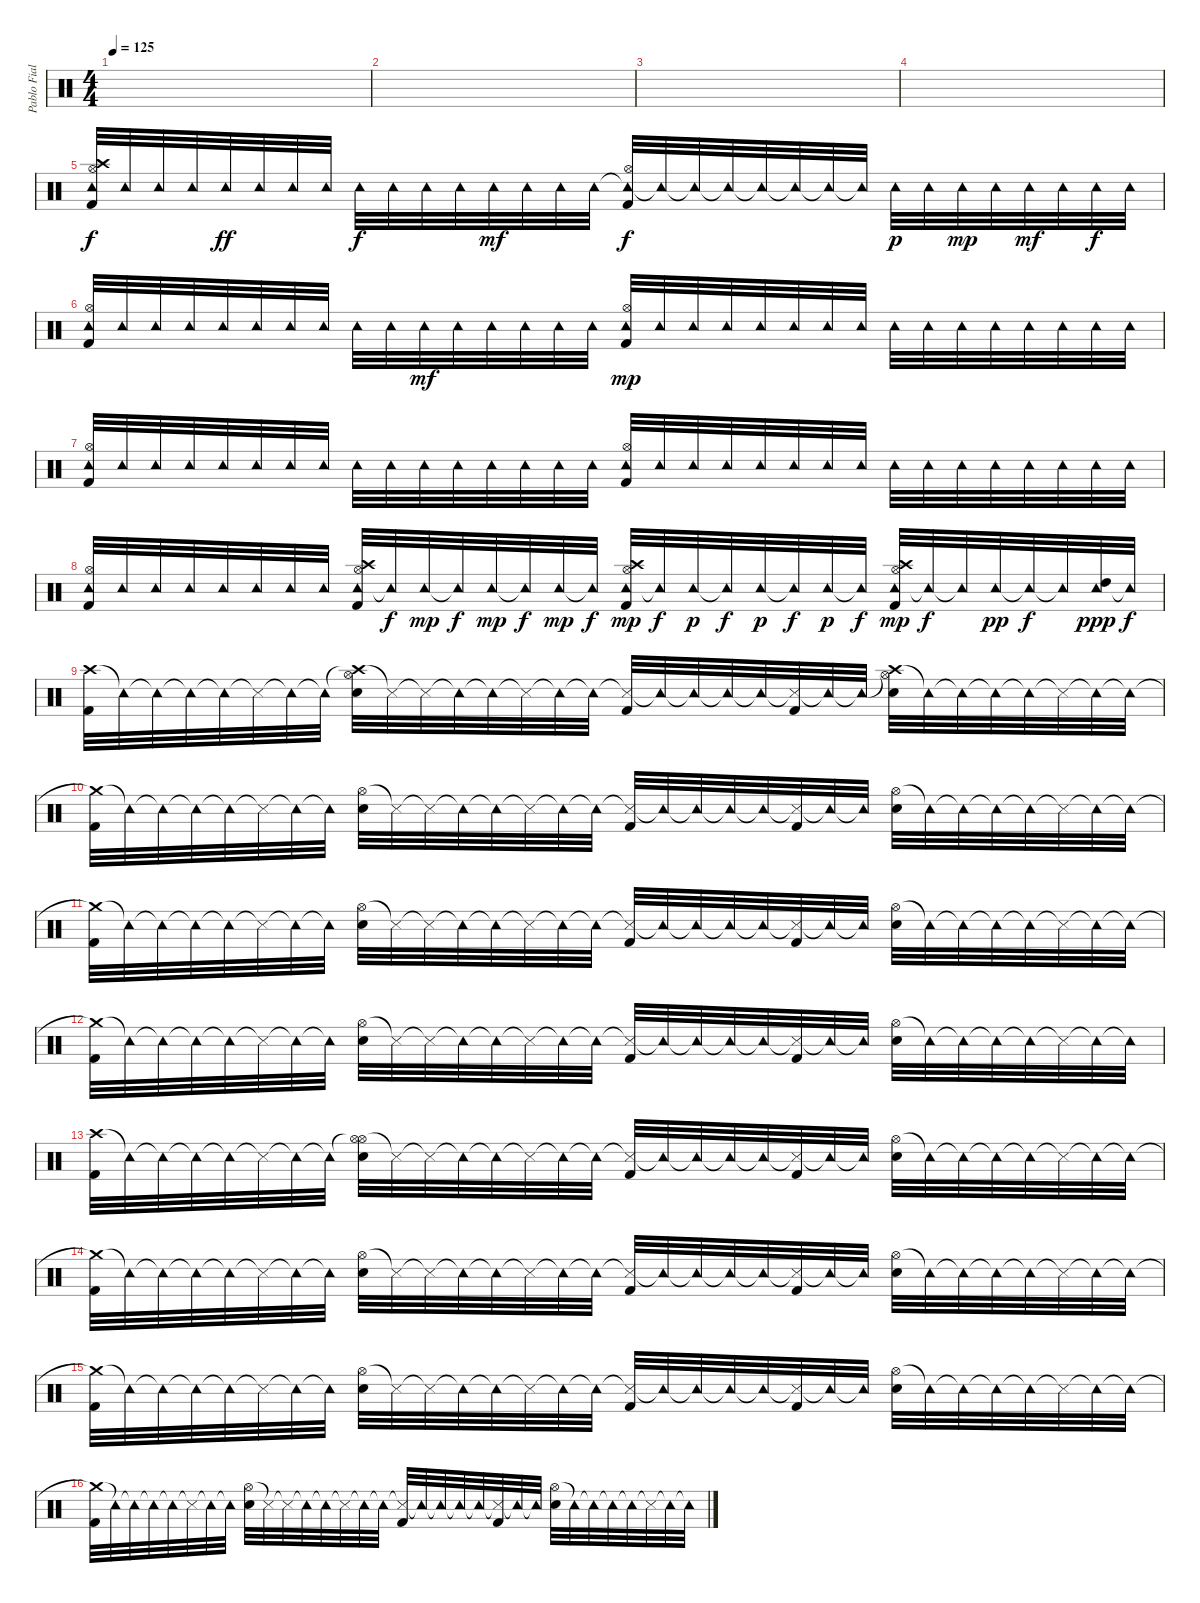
\track ("Pablo Fiallo" "Pablo Fial") {instrument percussion}
\staff {score}
\articulation defaults
\ts (4 4)
\tempo 125
\clef neutral
\ks c
|
|
|
|
("Tambourine (hit)" "Hi-Hat (open)" "Crash high (hit)" "Kick (hit) 2").32 "Tambourine (hit)".32 "Tambourine (hit)".32 "Tambourine (hit)".32 "Tambourine (hit)".32{dy ff} "Tambourine (hit)".32 "Tambourine (hit)".32 "Tambourine (hit)".32 "Tambourine (hit)".32{dy f} "Tambourine (hit)".32 "Tambourine (hit)".32 "Tambourine (hit)".32 "Tambourine (hit)".32{dy mf} "Tambourine (hit)".32 "Tambourine (hit)".32 "Tambourine (hit)".32 ("Tambourine (hit)"{t} "Hi-Hat (open)" "Kick (hit) 2").32{dy f} "Tambourine (hit)"{t}.32 "Tambourine (hit)"{t}.32 "Tambourine (hit)"{t}.32 "Tambourine (hit)"{t}.32 "Tambourine (hit)"{t}.32 "Tambourine (hit)"{t}.32 "Tambourine (hit)"{t}.32 "Tambourine (hit)".32{dy p} "Tambourine (hit)".32 "Tambourine (hit)".32{dy mp} "Tambourine (hit)".32 "Tambourine (hit)".32{dy mf} "Tambourine (hit)".32 "Tambourine (hit)".32{dy f} "Tambourine (hit)".32 |
("Tambourine (hit)" "Hi-Hat (open)" "Kick (hit) 2").32 "Tambourine (hit)".32 "Tambourine (hit)".32 "Tambourine (hit)".32 "Tambourine (hit)".32 "Tambourine (hit)".32 "Tambourine (hit)".32 "Tambourine (hit)".32 "Tambourine (hit)".32 "Tambourine (hit)".32 "Tambourine (hit)".32{dy mf} "Tambourine (hit)".32 "Tambourine (hit)".32 "Tambourine (hit)".32 "Tambourine (hit)".32 "Tambourine (hit)".32 ("Tambourine (hit)" "Hi-Hat (open)" "Kick (hit) 2").32{dy mp} "Tambourine (hit)".32 "Tambourine (hit)".32 "Tambourine (hit)".32 "Tambourine (hit)".32 "Tambourine (hit)".32 "Tambourine (hit)".32 "Tambourine (hit)".32 "Tambourine (hit)".32 "Tambourine (hit)".32 "Tambourine (hit)".32 "Tambourine (hit)".32 "Tambourine (hit)".32 "Tambourine (hit)".32 "Tambourine (hit)".32 "Tambourine (hit)".32 |
("Tambourine (hit)" "Hi-Hat (open)" "Kick (hit) 2").32 "Tambourine (hit)".32 "Tambourine (hit)".32 "Tambourine (hit)".32 "Tambourine (hit)".32 "Tambourine (hit)".32 "Tambourine (hit)".32 "Tambourine (hit)".32 "Tambourine (hit)".32 "Tambourine (hit)".32 "Tambourine (hit)".32 "Tambourine (hit)".32 "Tambourine (hit)".32 "Tambourine (hit)".32 "Tambourine (hit)".32 "Tambourine (hit)".32 ("Tambourine (hit)" "Hi-Hat (open)" "Kick (hit) 2").32 "Tambourine (hit)".32 "Tambourine (hit)".32 "Tambourine (hit)".32 "Tambourine (hit)".32 "Tambourine (hit)".32 "Tambourine (hit)".32 "Tambourine (hit)".32 "Tambourine (hit)".32 "Tambourine (hit)".32 "Tambourine (hit)".32 "Tambourine (hit)".32 "Tambourine (hit)".32 "Tambourine (hit)".32 "Tambourine (hit)".32 "Tambourine (hit)".32 |
("Tambourine (hit)" "Hi-Hat (open)" "Kick (hit) 2").32 "Tambourine (hit)".32 "Tambourine (hit)".32 "Tambourine (hit)".32 "Tambourine (hit)".32 "Tambourine (hit)".32 "Tambourine (hit)".32 "Tambourine (hit)".32 ("Tambourine (hit)" "Hi-Hat (open)" "Crash high (hit)" "Kick (hit) 2").32 "Tambourine (hit)"{t}.32{dy f} "Tambourine (hit)".32{dy mp} "Tambourine (hit)"{t}.32{dy f} "Tambourine (hit)".32{dy mp} "Tambourine (hit)"{t}.32{dy f} "Tambourine (hit)".32{dy mp} "Tambourine (hit)"{t}.32{dy f} ("Tambourine (hit)" "Hi-Hat (open)" "Crash high (hit)" "Kick (hit) 2").32{dy mp} "Tambourine (hit)"{t}.32{dy f} "Tambourine (hit)".32{dy p} "Tambourine (hit)"{t}.32{dy f} "Tambourine (hit)".32{dy p} "Tambourine (hit)"{t}.32{dy f} "Tambourine (hit)".32{dy p} "Tambourine (hit)"{t}.32{dy f} ("Tambourine (hit)" "Hi-Hat (open)" "Crash high (hit)" "Kick (hit) 2").32{dy mp} "Tambourine (hit)"{t}.32{dy f} "Tambourine (hit)"{t}.32 "Tambourine (hit)".32{dy pp} "Tambourine (hit)"{t}.32{dy f} "Tambourine (hit)"{t}.32 ("Tambourine (hit)" "High Tom (hit)").32{dy ppp} "Tambourine (hit)"{t}.32{dy f} |
("Crash high (hit)" "Kick (hit) 2").32 "Tambourine (hit)"{t}.32 "Tambourine (hit)"{t}.32 "Tambourine (hit)"{t}.32 "Tambourine (hit)"{t}.32 "Snare (side stick) 3"{t}.32 "Tambourine (hit)"{t}.32 "Tambourine (hit)"{t}.32 ("Crash high (hit)"{t} "Hi-Hat (open)" "Snare (hit) 2").32 "Snare (side stick) 3"{t}.32 "Snare (side stick) 3"{t}.32 "Tambourine (hit)"{t}.32 "Tambourine (hit)"{t}.32 "Snare (side stick) 3"{t}.32 "Tambourine (hit)"{t}.32 "Tambourine (hit)"{t}.32 ("Snare (side stick) 3"{t} "Kick (hit) 2").32 "Tambourine (hit)"{t}.32 "Tambourine (hit)"{t}.32 "Tambourine (hit)"{t}.32 "Tambourine (hit)"{t}.32 ("Snare (side stick) 3"{t} "Kick (hit) 2").32 "Tambourine (hit)"{t}.32 "Tambourine (hit)"{t}.32 ("Crash high (hit)"{t} "Hi-Hat (open)" "Snare (hit) 2").32 "Tambourine (hit)"{t}.32 "Tambourine (hit)"{t}.32 "Tambourine (hit)"{t}.32 "Tambourine (hit)"{t}.32 "Snare (side stick) 3"{t}.32 "Tambourine (hit)"{t}.32 "Tambourine (hit)"{t}.32 |
("Crash medium (hit)"{t} "Kick (hit) 2").32 "Tambourine (hit)"{t}.32 "Tambourine (hit)"{t}.32 "Tambourine (hit)"{t}.32 "Tambourine (hit)"{t}.32 "Snare (side stick) 3"{t}.32 "Tambourine (hit)"{t}.32 "Tambourine (hit)"{t}.32 ("Hi-Hat (open)" "Snare (hit) 2").32 "Snare (side stick) 3"{t}.32 "Snare (side stick) 3"{t}.32 "Tambourine (hit)"{t}.32 "Tambourine (hit)"{t}.32 "Snare (side stick) 3"{t}.32 "Tambourine (hit)"{t}.32 "Tambourine (hit)"{t}.32 ("Snare (side stick) 3"{t} "Kick (hit) 2").32 "Tambourine (hit)"{t}.32 "Tambourine (hit)"{t}.32 "Tambourine (hit)"{t}.32 "Tambourine (hit)"{t}.32 ("Snare (side stick) 3"{t} "Kick (hit) 2").32 "Tambourine (hit)"{t}.32 "Tambourine (hit)"{t}.32 ("Hi-Hat (open)" "Snare (hit) 2").32 "Tambourine (hit)"{t}.32 "Tambourine (hit)"{t}.32 "Tambourine (hit)"{t}.32 "Tambourine (hit)"{t}.32 "Snare (side stick) 3"{t}.32 "Tambourine (hit)"{t}.32 "Tambourine (hit)"{t}.32 |
("Crash medium (hit)"{t} "Kick (hit) 2").32 "Tambourine (hit)"{t}.32 "Tambourine (hit)"{t}.32 "Tambourine (hit)"{t}.32 "Tambourine (hit)"{t}.32 "Snare (side stick) 3"{t}.32 "Tambourine (hit)"{t}.32 "Tambourine (hit)"{t}.32 ("Hi-Hat (open)" "Snare (hit) 2").32 "Snare (side stick) 3"{t}.32 "Snare (side stick) 3"{t}.32 "Tambourine (hit)"{t}.32 "Tambourine (hit)"{t}.32 "Snare (side stick) 3"{t}.32 "Tambourine (hit)"{t}.32 "Tambourine (hit)"{t}.32 ("Snare (side stick) 3"{t} "Kick (hit) 2").32 "Tambourine (hit)"{t}.32 "Tambourine (hit)"{t}.32 "Tambourine (hit)"{t}.32 "Tambourine (hit)"{t}.32 ("Snare (side stick) 3"{t} "Kick (hit) 2").32 "Tambourine (hit)"{t}.32 "Tambourine (hit)"{t}.32 ("Hi-Hat (open)" "Snare (hit) 2").32 "Tambourine (hit)"{t}.32 "Tambourine (hit)"{t}.32 "Tambourine (hit)"{t}.32 "Tambourine (hit)"{t}.32 "Snare (side stick) 3"{t}.32 "Tambourine (hit)"{t}.32 "Tambourine (hit)"{t}.32 |
("Crash medium (hit)"{t} "Kick (hit) 2").32 "Tambourine (hit)"{t}.32 "Tambourine (hit)"{t}.32 "Tambourine (hit)"{t}.32 "Tambourine (hit)"{t}.32 "Snare (side stick) 3"{t}.32 "Tambourine (hit)"{t}.32 "Tambourine (hit)"{t}.32 ("Hi-Hat (open)" "Snare (hit) 2").32 "Snare (side stick) 3"{t}.32 "Snare (side stick) 3"{t}.32 "Tambourine (hit)"{t}.32 "Tambourine (hit)"{t}.32 "Snare (side stick) 3"{t}.32 "Tambourine (hit)"{t}.32 "Tambourine (hit)"{t}.32 ("Snare (side stick) 3"{t} "Kick (hit) 2").32 "Tambourine (hit)"{t}.32 "Tambourine (hit)"{t}.32 "Tambourine (hit)"{t}.32 "Tambourine (hit)"{t}.32 ("Snare (side stick) 3"{t} "Kick (hit) 2").32 "Tambourine (hit)"{t}.32 "Tambourine (hit)"{t}.32 ("Hi-Hat (open)" "Snare (hit) 2").32 "Tambourine (hit)"{t}.32 "Tambourine (hit)"{t}.32 "Tambourine (hit)"{t}.32 "Tambourine (hit)"{t}.32 "Snare (side stick) 3"{t}.32 "Tambourine (hit)"{t}.32 "Tambourine (hit)"{t}.32 |
("Crash high (hit)" "Kick (hit) 2").32 "Tambourine (hit)"{t}.32 "Tambourine (hit)"{t}.32 "Tambourine (hit)"{t}.32 "Tambourine (hit)"{t}.32 "Snare (side stick) 3"{t}.32 "Tambourine (hit)"{t}.32 "Tambourine (hit)"{t}.32 ("Hi-Hat (open)"{t} "Hi-Hat (open)" "Snare (hit) 2").32 "Snare (side stick) 3"{t}.32 "Snare (side stick) 3"{t}.32 "Tambourine (hit)"{t}.32 "Tambourine (hit)"{t}.32 "Snare (side stick) 3"{t}.32 "Tambourine (hit)"{t}.32 "Tambourine (hit)"{t}.32 ("Snare (side stick) 3"{t} "Kick (hit) 2").32 "Tambourine (hit)"{t}.32 "Tambourine (hit)"{t}.32 "Tambourine (hit)"{t}.32 "Tambourine (hit)"{t}.32 ("Snare (side stick) 3"{t} "Kick (hit) 2").32 "Tambourine (hit)"{t}.32 "Tambourine (hit)"{t}.32 ("Hi-Hat (open)" "Snare (hit) 2").32 "Tambourine (hit)"{t}.32 "Tambourine (hit)"{t}.32 "Tambourine (hit)"{t}.32 "Tambourine (hit)"{t}.32 "Snare (side stick) 3"{t}.32 "Tambourine (hit)"{t}.32 "Tambourine (hit)"{t}.32 |
("Crash medium (hit)"{t} "Kick (hit) 2").32 "Tambourine (hit)"{t}.32 "Tambourine (hit)"{t}.32 "Tambourine (hit)"{t}.32 "Tambourine (hit)"{t}.32 "Snare (side stick) 3"{t}.32 "Tambourine (hit)"{t}.32 "Tambourine (hit)"{t}.32 ("Hi-Hat (open)" "Snare (hit) 2").32 "Snare (side stick) 3"{t}.32 "Snare (side stick) 3"{t}.32 "Tambourine (hit)"{t}.32 "Tambourine (hit)"{t}.32 "Snare (side stick) 3"{t}.32 "Tambourine (hit)"{t}.32 "Tambourine (hit)"{t}.32 ("Snare (side stick) 3"{t} "Kick (hit) 2").32 "Tambourine (hit)"{t}.32 "Tambourine (hit)"{t}.32 "Tambourine (hit)"{t}.32 "Tambourine (hit)"{t}.32 ("Snare (side stick) 3"{t} "Kick (hit) 2").32 "Tambourine (hit)"{t}.32 "Tambourine (hit)"{t}.32 ("Hi-Hat (open)" "Snare (hit) 2").32 "Tambourine (hit)"{t}.32 "Tambourine (hit)"{t}.32 "Tambourine (hit)"{t}.32 "Tambourine (hit)"{t}.32 "Snare (side stick) 3"{t}.32 "Tambourine (hit)"{t}.32 "Tambourine (hit)"{t}.32 |
("Crash medium (hit)"{t} "Kick (hit) 2").32 "Tambourine (hit)"{t}.32 "Tambourine (hit)"{t}.32 "Tambourine (hit)"{t}.32 "Tambourine (hit)"{t}.32 "Snare (side stick) 3"{t}.32 "Tambourine (hit)"{t}.32 "Tambourine (hit)"{t}.32 ("Hi-Hat (open)" "Snare (hit) 2").32 "Snare (side stick) 3"{t}.32 "Snare (side stick) 3"{t}.32 "Tambourine (hit)"{t}.32 "Tambourine (hit)"{t}.32 "Snare (side stick) 3"{t}.32 "Tambourine (hit)"{t}.32 "Tambourine (hit)"{t}.32 ("Snare (side stick) 3"{t} "Kick (hit) 2").32 "Tambourine (hit)"{t}.32 "Tambourine (hit)"{t}.32 "Tambourine (hit)"{t}.32 "Tambourine (hit)"{t}.32 ("Snare (side stick) 3"{t} "Kick (hit) 2").32 "Tambourine (hit)"{t}.32 "Tambourine (hit)"{t}.32 ("Hi-Hat (open)" "Snare (hit) 2").32 "Tambourine (hit)"{t}.32 "Tambourine (hit)"{t}.32 "Tambourine (hit)"{t}.32 "Tambourine (hit)"{t}.32 "Snare (side stick) 3"{t}.32 "Tambourine (hit)"{t}.32 "Tambourine (hit)"{t}.32 |
("Crash medium (hit)"{t} "Kick (hit) 2").32 "Tambourine (hit)"{t}.32 "Tambourine (hit)"{t}.32 "Tambourine (hit)"{t}.32 "Tambourine (hit)"{t}.32 "Snare (side stick) 3"{t}.32 "Tambourine (hit)"{t}.32 "Tambourine (hit)"{t}.32 ("Hi-Hat (open)" "Snare (hit) 2").32 "Snare (side stick) 3"{t}.32 "Snare (side stick) 3"{t}.32 "Tambourine (hit)"{t}.32 "Tambourine (hit)"{t}.32 "Snare (side stick) 3"{t}.32 "Tambourine (hit)"{t}.32 "Tambourine (hit)"{t}.32 ("Snare (side stick) 3"{t} "Kick (hit) 2").32 "Tambourine (hit)"{t}.32 "Tambourine (hit)"{t}.32 "Tambourine (hit)"{t}.32 "Tambourine (hit)"{t}.32 ("Snare (side stick) 3"{t} "Kick (hit) 2").32 "Tambourine (hit)"{t}.32 "Tambourine (hit)"{t}.32 ("Hi-Hat (open)" "Snare (hit) 2").32 "Tambourine (hit)"{t}.32 "Tambourine (hit)"{t}.32 "Tambourine (hit)"{t}.32 "Tambourine (hit)"{t}.32 "Snare (side stick) 3"{t}.32 "Tambourine (hit)"{t}.32 "Tambourine (hit)"{t}.32
